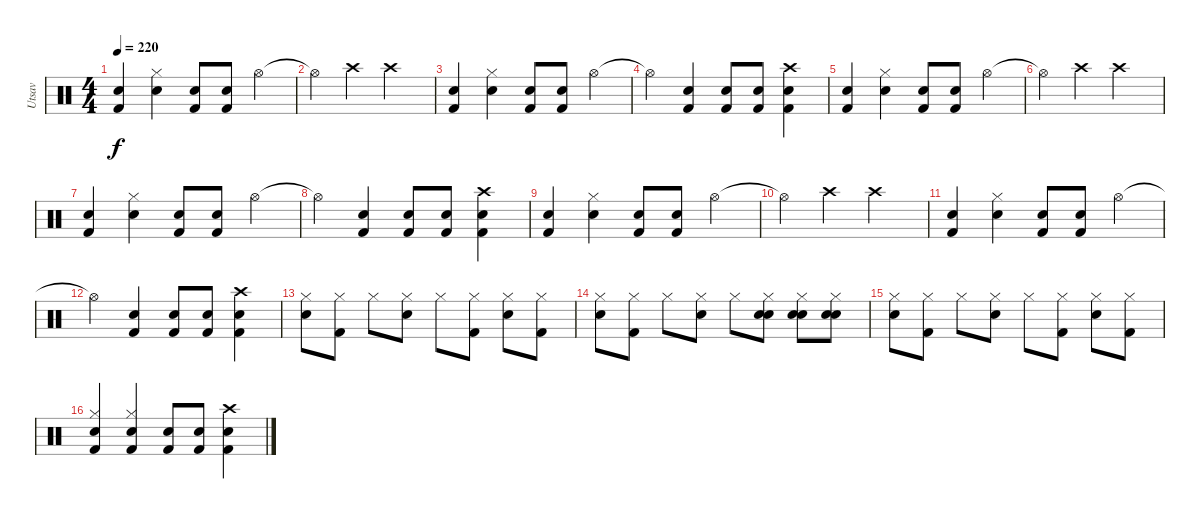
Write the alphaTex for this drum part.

\track ("Utsav" "Utsav") {instrument percussion}
\staff {score}
\articulation defaults
\ts (4 4)
\tempo 220
\clef neutral
\ks c
("Electric Snare (hit)" "Kick (hit) 2").4{dy f} ("Hi-Hat (closed)" "Snare (hit) 2").4 ("Electric Snare (hit)" "Kick (hit) 2").8 ("Electric Snare (hit)" "Kick (hit) 2").8 "Hi-Hat (open)".4 |
"Hi-Hat (open)"{t}.4 "Crash high (hit)".4 "Crash high (hit)".2 |
("Electric Snare (hit)" "Kick (hit) 2").4 ("Hi-Hat (closed)" "Snare (hit) 2").4 ("Electric Snare (hit)" "Kick (hit) 2").8 ("Electric Snare (hit)" "Kick (hit) 2").8 "Hi-Hat (open)".4 |
"Hi-Hat (open)"{t}.4 ("Snare (hit) 2" "Kick (hit) 2").4 ("Snare (hit) 2" "Kick (hit) 2").8 ("Snare (hit) 2" "Kick (hit) 2").8 ("Crash high (hit)" "Snare (hit) 2" "Kick (hit) 2").4 |
("Electric Snare (hit)" "Kick (hit) 2").4 ("Hi-Hat (closed)" "Snare (hit) 2").4 ("Electric Snare (hit)" "Kick (hit) 2").8 ("Electric Snare (hit)" "Kick (hit) 2").8 "Hi-Hat (open)".4 |
"Hi-Hat (open)"{t}.4 "Crash high (hit)".4 "Crash high (hit)".2 |
("Electric Snare (hit)" "Kick (hit) 2").4 ("Hi-Hat (closed)" "Snare (hit) 2").4 ("Electric Snare (hit)" "Kick (hit) 2").8 ("Electric Snare (hit)" "Kick (hit) 2").8 "Hi-Hat (open)".4 |
"Hi-Hat (open)"{t}.4 ("Snare (hit) 2" "Kick (hit) 2").4 ("Snare (hit) 2" "Kick (hit) 2").8 ("Snare (hit) 2" "Kick (hit) 2").8 ("Crash high (hit)" "Snare (hit) 2" "Kick (hit) 2").4 |
("Electric Snare (hit)" "Kick (hit) 2").4 ("Hi-Hat (closed)" "Snare (hit) 2").4 ("Electric Snare (hit)" "Kick (hit) 2").8 ("Electric Snare (hit)" "Kick (hit) 2").8 "Hi-Hat (open)".4 |
"Hi-Hat (open)"{t}.4 "Crash high (hit)".4 "Crash high (hit)".2 |
("Electric Snare (hit)" "Kick (hit) 2").4 ("Hi-Hat (closed)" "Snare (hit) 2").4 ("Electric Snare (hit)" "Kick (hit) 2").8 ("Electric Snare (hit)" "Kick (hit) 2").8 "Hi-Hat (open)".4 |
"Hi-Hat (open)"{t}.4 ("Snare (hit) 2" "Kick (hit) 2").4 ("Snare (hit) 2" "Kick (hit) 2").8 ("Snare (hit) 2" "Kick (hit) 2").8 ("Crash high (hit)" "Snare (hit) 2" "Kick (hit) 2").4 |
("Hi-Hat (closed)" "Snare (hit) 2").8 ("Hi-Hat (closed)" "Kick (hit) 2").8 "Hi-Hat (closed)".8 ("Hi-Hat (closed)" "Snare (hit) 2").8 "Hi-Hat (closed)".8 ("Hi-Hat (closed)" "Kick (hit) 2").8 ("Hi-Hat (closed)" "Snare (hit) 2").8 ("Hi-Hat (closed)" "Kick (hit) 2").8 |
("Hi-Hat (closed)" "Snare (hit) 2").8 ("Hi-Hat (closed)" "Kick (hit) 2").8 "Hi-Hat (closed)".8 ("Hi-Hat (closed)" "Snare (hit) 2").8 "Hi-Hat (closed)".8 ("Hi-Hat (closed)" "Snare (hit) 2" "Snare (hit) 2").8 ("Hi-Hat (closed)" "Snare (hit) 2" "Snare (hit) 2").8 ("Hi-Hat (closed)" "Snare (hit) 2" "Snare (hit) 2").8 |
("Hi-Hat (closed)" "Snare (hit) 2").8 ("Hi-Hat (closed)" "Kick (hit) 2").8 "Hi-Hat (closed)".8 ("Hi-Hat (closed)" "Snare (hit) 2").8 "Hi-Hat (closed)".8 ("Hi-Hat (closed)" "Kick (hit) 2").8 ("Hi-Hat (closed)" "Snare (hit) 2").8 ("Hi-Hat (closed)" "Kick (hit) 2").8 |
("Snare (hit) 2" "Hi-Hat (closed)" "Kick (hit) 2").4 ("Snare (hit) 2" "Hi-Hat (closed)" "Kick (hit) 2").4 ("Snare (hit) 2" "Kick (hit) 2").8 ("Snare (hit) 2" "Kick (hit) 2").8 ("Crash high (hit)" "Snare (hit) 2" "Kick (hit) 2").4
